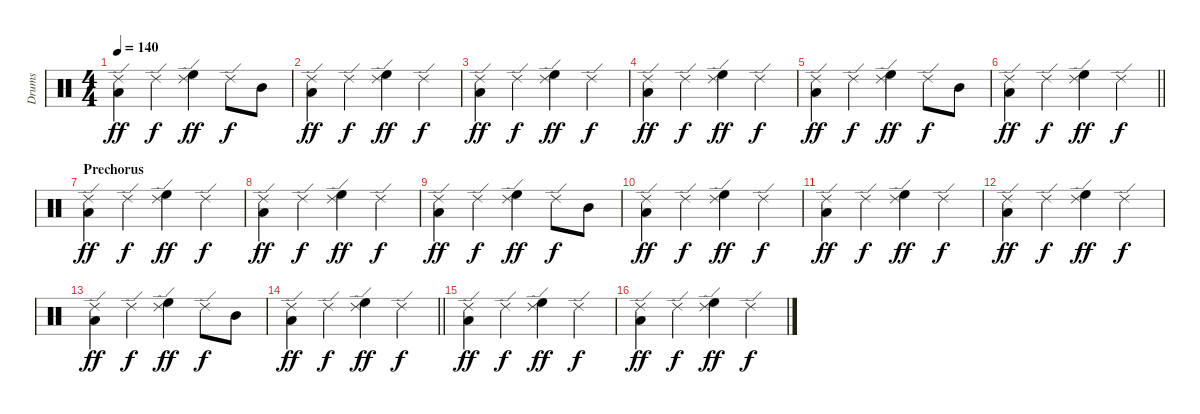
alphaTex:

\track ("Drums" "Drums") {instrument percussion}
\staff {score}
\articulation defaults
\ts (4 4)
\tempo 140
\clef neutral
\ks c
("Low Tom (hit)" "Ride (edge) 2").4{dy ff} "Ride (edge) 2".4{dy f} ("High Floor Tom (hit)" "Ride (edge) 2").4{dy ff} "Ride (edge) 2".8{dy f} "Mid Tom (hit)".8 |
("Low Tom (hit)" "Ride (edge) 2").4{dy ff} "Ride (edge) 2".4{dy f} ("High Floor Tom (hit)" "Ride (edge) 2").4{dy ff} "Ride (edge) 2".4{dy f} |
("Low Tom (hit)" "Ride (edge) 2").4{dy ff} "Ride (edge) 2".4{dy f} ("High Floor Tom (hit)" "Ride (edge) 2").4{dy ff} "Ride (edge) 2".4{dy f} |
("Low Tom (hit)" "Ride (edge) 2").4{dy ff} "Ride (edge) 2".4{dy f} ("High Floor Tom (hit)" "Ride (edge) 2").4{dy ff} "Ride (edge) 2".4{dy f} |
("Low Tom (hit)" "Ride (edge) 2").4{dy ff} "Ride (edge) 2".4{dy f} ("High Floor Tom (hit)" "Ride (edge) 2").4{dy ff} "Ride (edge) 2".8{dy f} "Mid Tom (hit)".8 |
\barLineRight lightlight
("Low Tom (hit)" "Ride (edge) 2").4{dy ff} "Ride (edge) 2".4{dy f} ("High Floor Tom (hit)" "Ride (edge) 2").4{dy ff} "Ride (edge) 2".4{dy f} |
\section ("" "Prechorus")
("Low Tom (hit)" "Ride (edge) 2").4{dy ff} "Ride (edge) 2".4{dy f} ("High Floor Tom (hit)" "Ride (edge) 2").4{dy ff} "Ride (edge) 2".4{dy f} |
("Low Tom (hit)" "Ride (edge) 2").4{dy ff} "Ride (edge) 2".4{dy f} ("High Floor Tom (hit)" "Ride (edge) 2").4{dy ff} "Ride (edge) 2".4{dy f} |
("Low Tom (hit)" "Ride (edge) 2").4{dy ff} "Ride (edge) 2".4{dy f} ("High Floor Tom (hit)" "Ride (edge) 2").4{dy ff} "Ride (edge) 2".8{dy f} "Mid Tom (hit)".8 |
("Low Tom (hit)" "Ride (edge) 2").4{dy ff} "Ride (edge) 2".4{dy f} ("High Floor Tom (hit)" "Ride (edge) 2").4{dy ff} "Ride (edge) 2".4{dy f} |
("Low Tom (hit)" "Ride (edge) 2").4{dy ff} "Ride (edge) 2".4{dy f} ("High Floor Tom (hit)" "Ride (edge) 2").4{dy ff} "Ride (edge) 2".4{dy f} |
("Low Tom (hit)" "Ride (edge) 2").4{dy ff} "Ride (edge) 2".4{dy f} ("High Floor Tom (hit)" "Ride (edge) 2").4{dy ff} "Ride (edge) 2".4{dy f} |
("Low Tom (hit)" "Ride (edge) 2").4{dy ff} "Ride (edge) 2".4{dy f} ("High Floor Tom (hit)" "Ride (edge) 2").4{dy ff} "Ride (edge) 2".8{dy f} "Mid Tom (hit)".8 |
\barLineRight lightlight
("Low Tom (hit)" "Ride (edge) 2").4{dy ff} "Ride (edge) 2".4{dy f} ("High Floor Tom (hit)" "Ride (edge) 2").4{dy ff} "Ride (edge) 2".4{dy f} |
("Low Tom (hit)" "Ride (edge) 2").4{dy ff} "Ride (edge) 2".4{dy f} ("High Floor Tom (hit)" "Ride (edge) 2").4{dy ff} "Ride (edge) 2".4{dy f} |
("Low Tom (hit)" "Ride (edge) 2").4{dy ff} "Ride (edge) 2".4{dy f} ("High Floor Tom (hit)" "Ride (edge) 2").4{dy ff} "Ride (edge) 2".4{dy f}
